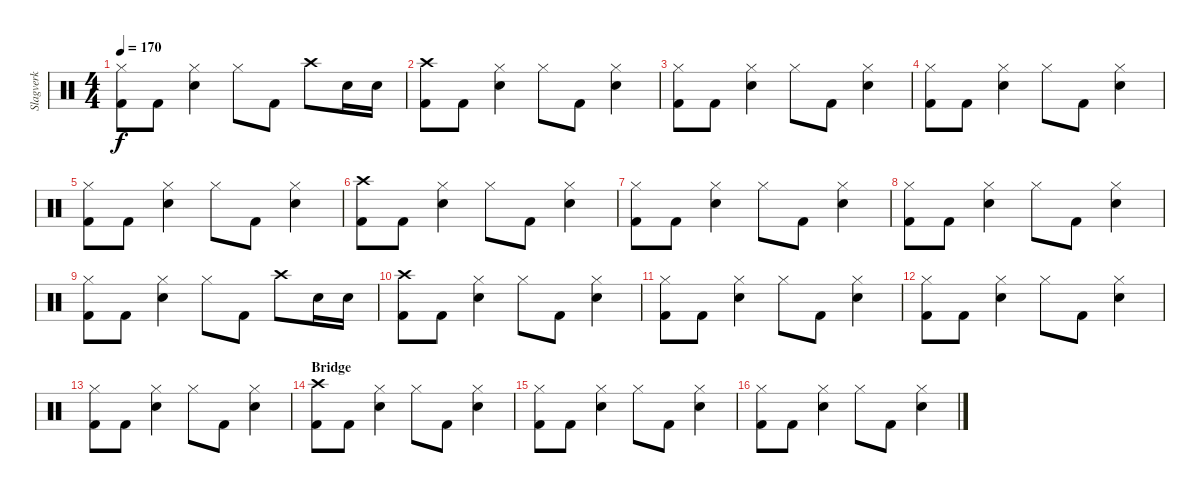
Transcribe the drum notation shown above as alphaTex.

\track ("Slagverk" "Slagverk") {instrument percussion}
\staff {score}
\articulation defaults
\ts (4 4)
\tempo 170
\clef neutral
\ks c
("Kick (hit) 2" "Hi-Hat (closed)").8{dy f} "Kick (hit) 2".8 ("Hi-Hat (closed)" "Snare (hit) 2").4 "Hi-Hat (closed)".8 "Kick (hit) 2".8 "Crash high (hit)".8 "Snare (hit) 2".16 "Snare (hit) 2".16 |
("Kick (hit) 2" "Crash high (hit)").8 "Kick (hit) 2".8 ("Hi-Hat (closed)" "Snare (hit) 2").4 "Hi-Hat (closed)".8 "Kick (hit) 2".8 ("Hi-Hat (closed)" "Snare (hit) 2").4 |
("Kick (hit) 2" "Hi-Hat (closed)").8 "Kick (hit) 2".8 ("Hi-Hat (closed)" "Snare (hit) 2").4 "Hi-Hat (closed)".8 "Kick (hit) 2".8 ("Hi-Hat (closed)" "Snare (hit) 2").4 |
("Kick (hit) 2" "Hi-Hat (closed)").8 "Kick (hit) 2".8 ("Hi-Hat (closed)" "Snare (hit) 2").4 "Hi-Hat (closed)".8 "Kick (hit) 2".8 ("Hi-Hat (closed)" "Snare (hit) 2").4 |
("Kick (hit) 2" "Hi-Hat (closed)").8 "Kick (hit) 2".8 ("Hi-Hat (closed)" "Snare (hit) 2").4 "Hi-Hat (closed)".8 "Kick (hit) 2".8 ("Hi-Hat (closed)" "Snare (hit) 2").4 |
("Kick (hit) 2" "Crash high (hit)").8 "Kick (hit) 2".8 ("Hi-Hat (closed)" "Snare (hit) 2").4 "Hi-Hat (closed)".8 "Kick (hit) 2".8 ("Hi-Hat (closed)" "Snare (hit) 2").4 |
("Kick (hit) 2" "Hi-Hat (closed)").8 "Kick (hit) 2".8 ("Hi-Hat (closed)" "Snare (hit) 2").4 "Hi-Hat (closed)".8 "Kick (hit) 2".8 ("Hi-Hat (closed)" "Snare (hit) 2").4 |
("Kick (hit) 2" "Hi-Hat (closed)").8 "Kick (hit) 2".8 ("Hi-Hat (closed)" "Snare (hit) 2").4 "Hi-Hat (closed)".8 "Kick (hit) 2".8 ("Hi-Hat (closed)" "Snare (hit) 2").4 |
("Kick (hit) 2" "Hi-Hat (closed)").8 "Kick (hit) 2".8 ("Hi-Hat (closed)" "Snare (hit) 2").4 "Hi-Hat (closed)".8 "Kick (hit) 2".8 "Crash high (hit)".8 "Snare (hit) 2".16 "Snare (hit) 2".16 |
("Kick (hit) 2" "Crash high (hit)").8 "Kick (hit) 2".8 ("Hi-Hat (closed)" "Snare (hit) 2").4 "Hi-Hat (closed)".8 "Kick (hit) 2".8 ("Hi-Hat (closed)" "Snare (hit) 2").4 |
("Kick (hit) 2" "Hi-Hat (closed)").8 "Kick (hit) 2".8 ("Hi-Hat (closed)" "Snare (hit) 2").4 "Hi-Hat (closed)".8 "Kick (hit) 2".8 ("Hi-Hat (closed)" "Snare (hit) 2").4 |
("Kick (hit) 2" "Hi-Hat (closed)").8 "Kick (hit) 2".8 ("Hi-Hat (closed)" "Snare (hit) 2").4 "Hi-Hat (closed)".8 "Kick (hit) 2".8 ("Hi-Hat (closed)" "Snare (hit) 2").4 |
("Kick (hit) 2" "Hi-Hat (closed)").8 "Kick (hit) 2".8 ("Hi-Hat (closed)" "Snare (hit) 2").4 "Hi-Hat (closed)".8 "Kick (hit) 2".8 ("Hi-Hat (closed)" "Snare (hit) 2").4 |
\section ("" "Bridge")
("Kick (hit) 2" "Crash high (hit)").8 "Kick (hit) 2".8 ("Hi-Hat (closed)" "Snare (hit) 2").4 "Hi-Hat (closed)".8 "Kick (hit) 2".8 ("Hi-Hat (closed)" "Snare (hit) 2").4 |
("Kick (hit) 2" "Hi-Hat (closed)").8 "Kick (hit) 2".8 ("Hi-Hat (closed)" "Snare (hit) 2").4 "Hi-Hat (closed)".8 "Kick (hit) 2".8 ("Hi-Hat (closed)" "Snare (hit) 2").4 |
("Kick (hit) 2" "Hi-Hat (closed)").8 "Kick (hit) 2".8 ("Hi-Hat (closed)" "Snare (hit) 2").4 "Hi-Hat (closed)".8 "Kick (hit) 2".8 ("Hi-Hat (closed)" "Snare (hit) 2").4
